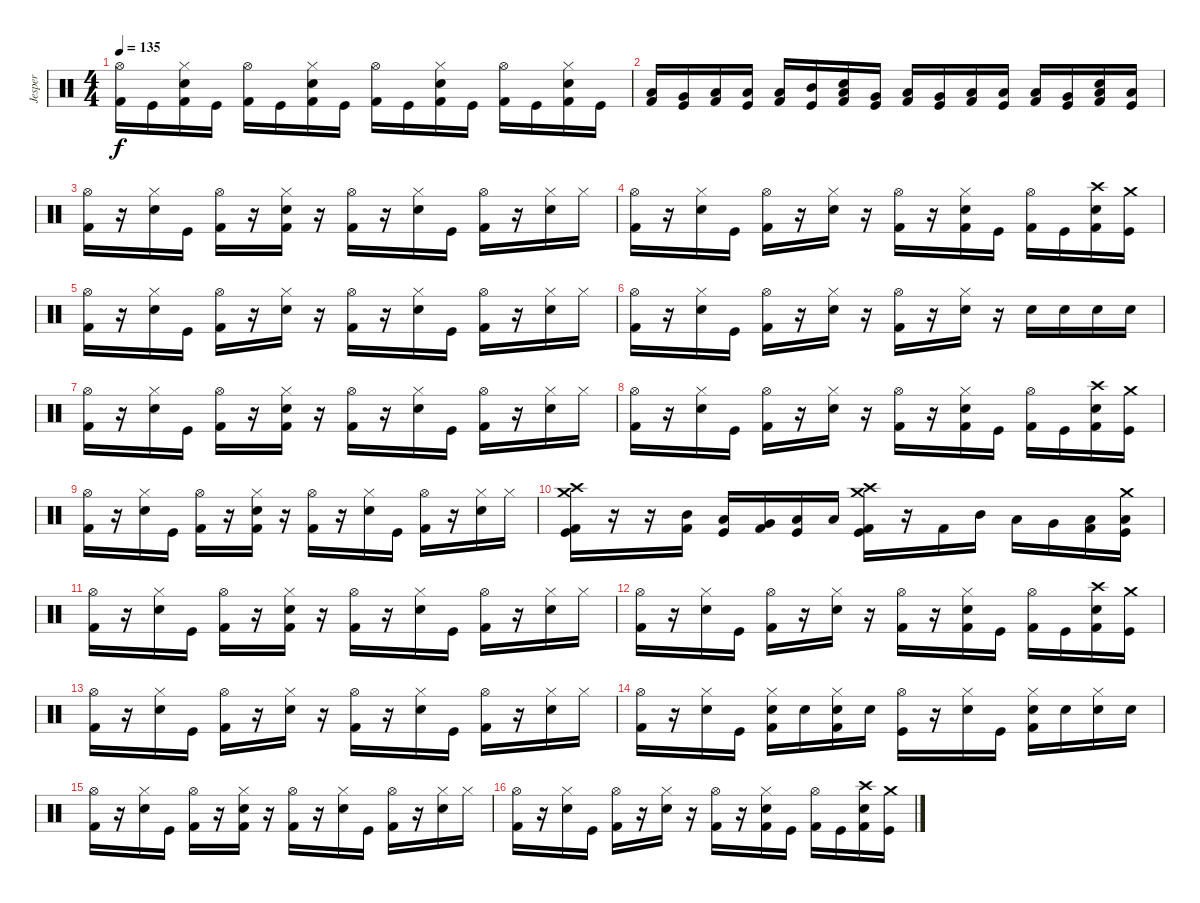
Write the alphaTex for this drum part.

\track ("Jesper" "Jesper") {instrument percussion}
\staff {score}
\articulation defaults
\ts (4 4)
\tempo 135
\clef neutral
\ks c
("Kick (hit) 2" "Hi-Hat (open)").16{dy f} "Kick (hit)".16 ("Kick (hit) 2" "Snare (hit) 2" "Hi-Hat (closed)").16 "Kick (hit)".16 ("Kick (hit) 2" "Hi-Hat (open)").16 "Kick (hit)".16 ("Kick (hit) 2" "Snare (hit) 2" "Hi-Hat (closed)").16 "Kick (hit)".16 ("Kick (hit) 2" "Hi-Hat (open)").16 "Kick (hit)".16 ("Kick (hit) 2" "Snare (hit) 2" "Hi-Hat (closed)").16 "Kick (hit)".16 ("Kick (hit) 2" "Hi-Hat (open)").16 "Kick (hit)".16 ("Kick (hit) 2" "Snare (hit) 2" "Hi-Hat (closed)").16 "Kick (hit)".16 |
("Kick (hit) 2" "Low Floor Tom (hit)").16 ("Kick (hit)" "Very Low Tom (hit)").16 ("Kick (hit) 2" "Low Floor Tom (hit)").16 ("Kick (hit)" "Low Tom (hit)").16 ("Kick (hit) 2" "Low Floor Tom (hit)").16 ("Kick (hit)" "Mid Tom (hit)").16 ("Kick (hit) 2" "Snare (hit) 2" "Low Floor Tom (hit)").16 ("Kick (hit)" "Very Low Tom (hit)").16 ("Kick (hit) 2" "Low Floor Tom (hit)").16 ("Kick (hit)" "Very Low Tom (hit)").16 ("Kick (hit) 2" "Low Floor Tom (hit)").16 ("Kick (hit)" "Low Tom (hit)").16 ("Kick (hit) 2" "Low Floor Tom (hit)").16 ("Kick (hit)" "Very Low Tom (hit)").16 ("Kick (hit) 2" "Snare (hit) 2" "Low Floor Tom (hit)").16 ("Kick (hit)" "Low Floor Tom (hit)").16 |
("Kick (hit) 2" "Hi-Hat (open)").16 r.16 ("Snare (hit) 2" "Hi-Hat (closed)").16 "Kick (hit)".16 ("Kick (hit) 2" "Hi-Hat (open)").16 r.16 ("Kick (hit) 2" "Snare (hit) 2" "Hi-Hat (closed)").16 r.16 ("Kick (hit) 2" "Hi-Hat (open)").16 r.16 ("Snare (hit) 2" "Hi-Hat (closed)").16 "Kick (hit)".16 ("Kick (hit) 2" "Hi-Hat (open)").16 r.16 ("Snare (hit) 2" "Hi-Hat (closed)").16 "Hi-Hat (closed)".16 |
("Kick (hit) 2" "Hi-Hat (open)").16 r.16 ("Snare (hit) 2" "Hi-Hat (closed)").16 "Kick (hit)".16 ("Kick (hit) 2" "Hi-Hat (open)").16 r.16 ("Snare (hit) 2" "Hi-Hat (closed)").16 r.16 ("Kick (hit) 2" "Hi-Hat (open)").16 r.16 ("Kick (hit) 2" "Snare (hit) 2" "Hi-Hat (closed)").16 "Kick (hit)".16 ("Kick (hit) 2" "Hi-Hat (open)").16 "Kick (hit)".16 ("Kick (hit) 2" "Snare (hit) 2" "Crash high (hit)").16 ("Kick (hit)" "Crash medium (hit)").16 |
("Kick (hit) 2" "Hi-Hat (open)").16 r.16 ("Snare (hit) 2" "Hi-Hat (closed)").16 "Kick (hit)".16 ("Kick (hit) 2" "Hi-Hat (open)").16 r.16 ("Snare (hit) 2" "Hi-Hat (closed)").16 r.16 ("Kick (hit) 2" "Hi-Hat (open)").16 r.16 ("Snare (hit) 2" "Hi-Hat (closed)").16 "Kick (hit)".16 ("Kick (hit) 2" "Hi-Hat (open)").16 r.16 ("Snare (hit) 2" "Hi-Hat (closed)").16 "Hi-Hat (closed)".16 |
("Kick (hit) 2" "Hi-Hat (open)").16 r.16 ("Snare (hit) 2" "Hi-Hat (closed)").16 "Kick (hit)".16 ("Kick (hit) 2" "Hi-Hat (open)").16 r.16 ("Snare (hit) 2" "Hi-Hat (closed)").16 r.16 ("Kick (hit) 2" "Hi-Hat (open)").16 r.16 ("Snare (hit) 2" "Hi-Hat (closed)").16 r.16 "Snare (hit) 2".16 "Snare (hit) 2".16 "Snare (hit) 2".16 "Snare (hit) 2".16 |
("Kick (hit) 2" "Hi-Hat (open)").16 r.16 ("Snare (hit) 2" "Hi-Hat (closed)").16 "Kick (hit)".16 ("Kick (hit) 2" "Hi-Hat (open)").16 r.16 ("Kick (hit) 2" "Snare (hit) 2" "Hi-Hat (closed)").16 r.16 ("Kick (hit) 2" "Hi-Hat (open)").16 r.16 ("Snare (hit) 2" "Hi-Hat (closed)").16 "Kick (hit)".16 ("Kick (hit) 2" "Hi-Hat (open)").16 r.16 ("Snare (hit) 2" "Hi-Hat (closed)").16 "Hi-Hat (closed)".16 |
("Kick (hit) 2" "Hi-Hat (open)").16 r.16 ("Snare (hit) 2" "Hi-Hat (closed)").16 "Kick (hit)".16 ("Kick (hit) 2" "Hi-Hat (open)").16 r.16 ("Snare (hit) 2" "Hi-Hat (closed)").16 r.16 ("Kick (hit) 2" "Hi-Hat (open)").16 r.16 ("Kick (hit) 2" "Snare (hit) 2" "Hi-Hat (closed)").16 "Kick (hit)".16 ("Kick (hit) 2" "Hi-Hat (open)").16 "Kick (hit)".16 ("Kick (hit) 2" "Snare (hit) 2" "Crash high (hit)").16 ("Kick (hit)" "Crash medium (hit)").16 |
("Kick (hit) 2" "Hi-Hat (open)").16 r.16 ("Snare (hit) 2" "Hi-Hat (closed)").16 "Kick (hit)".16 ("Kick (hit) 2" "Hi-Hat (open)").16 r.16 ("Kick (hit) 2" "Snare (hit) 2" "Hi-Hat (closed)").16 r.16 ("Kick (hit) 2" "Hi-Hat (open)").16 r.16 ("Snare (hit) 2" "Hi-Hat (closed)").16 "Kick (hit)".16 ("Kick (hit) 2" "Hi-Hat (open)").16 r.16 ("Snare (hit) 2" "Hi-Hat (closed)").16 "Hi-Hat (closed)".16 |
("Kick (hit) 2" "Kick (hit)" "Crash medium (hit)" "Crash high (hit)").16 r.16 r.16 ("Kick (hit) 2" "Mid Tom (hit)").16 ("Kick (hit)" "Low Tom (hit)").16 ("Kick (hit) 2" "Very Low Tom (hit)").16 ("Kick (hit)" "Low Floor Tom (hit)").16 "Low Floor Tom (hit)".16 ("Kick (hit) 2" "Kick (hit)" "Crash medium (hit)" "Crash high (hit)").16 r.16 "Kick (hit) 2".16 "Mid Tom (hit)".16 "Low Tom (hit)".16 "Very Low Tom (hit)".16 ("Kick (hit) 2" "Low Floor Tom (hit)").16 ("Kick (hit)" "Low Floor Tom (hit)" "Crash medium (hit)").16 |
("Kick (hit) 2" "Hi-Hat (open)").16 r.16 ("Snare (hit) 2" "Hi-Hat (closed)").16 "Kick (hit)".16 ("Kick (hit) 2" "Hi-Hat (open)").16 r.16 ("Kick (hit) 2" "Snare (hit) 2" "Hi-Hat (closed)").16 r.16 ("Kick (hit) 2" "Hi-Hat (open)").16 r.16 ("Snare (hit) 2" "Hi-Hat (closed)").16 "Kick (hit)".16 ("Kick (hit) 2" "Hi-Hat (open)").16 r.16 ("Snare (hit) 2" "Hi-Hat (closed)").16 "Hi-Hat (closed)".16 |
("Kick (hit) 2" "Hi-Hat (open)").16 r.16 ("Snare (hit) 2" "Hi-Hat (closed)").16 "Kick (hit)".16 ("Kick (hit) 2" "Hi-Hat (open)").16 r.16 ("Snare (hit) 2" "Hi-Hat (closed)").16 r.16 ("Kick (hit) 2" "Hi-Hat (open)").16 r.16 ("Kick (hit) 2" "Snare (hit) 2" "Hi-Hat (closed)").16 "Kick (hit)".16 ("Kick (hit) 2" "Hi-Hat (open)").16 "Kick (hit)".16 ("Kick (hit) 2" "Snare (hit) 2" "Crash high (hit)").16 ("Kick (hit)" "Crash medium (hit)").16 |
("Kick (hit) 2" "Hi-Hat (open)").16 r.16 ("Snare (hit) 2" "Hi-Hat (closed)").16 "Kick (hit)".16 ("Kick (hit) 2" "Hi-Hat (open)").16 r.16 ("Snare (hit) 2" "Hi-Hat (closed)").16 r.16 ("Kick (hit) 2" "Hi-Hat (open)").16 r.16 ("Snare (hit) 2" "Hi-Hat (closed)").16 "Kick (hit)".16 ("Kick (hit) 2" "Hi-Hat (open)").16 r.16 ("Snare (hit) 2" "Hi-Hat (closed)").16 "Hi-Hat (closed)".16 |
("Kick (hit) 2" "Hi-Hat (open)").16 r.16 ("Snare (hit) 2" "Hi-Hat (closed)").16 "Kick (hit)".16 ("Kick (hit) 2" "Snare (hit) 2" "Hi-Hat (closed)").16 "Snare (hit) 2".16 ("Kick (hit) 2" "Snare (hit) 2" "Hi-Hat (closed)").16 "Snare (hit) 2".16 ("Kick (hit)" "Hi-Hat (open)").16 r.16 ("Snare (hit) 2" "Hi-Hat (closed)").16 "Kick (hit)".16 ("Kick (hit) 2" "Snare (hit) 2" "Hi-Hat (closed)").16 "Snare (hit) 2".16 ("Snare (hit) 2" "Hi-Hat (closed)").16 "Snare (hit) 2".16 |
("Kick (hit) 2" "Hi-Hat (open)").16 r.16 ("Snare (hit) 2" "Hi-Hat (closed)").16 "Kick (hit)".16 ("Kick (hit) 2" "Hi-Hat (open)").16 r.16 ("Kick (hit) 2" "Snare (hit) 2" "Hi-Hat (closed)").16 r.16 ("Kick (hit) 2" "Hi-Hat (open)").16 r.16 ("Snare (hit) 2" "Hi-Hat (closed)").16 "Kick (hit)".16 ("Kick (hit) 2" "Hi-Hat (open)").16 r.16 ("Snare (hit) 2" "Hi-Hat (closed)").16 "Hi-Hat (closed)".16 |
("Kick (hit) 2" "Hi-Hat (open)").16 r.16 ("Snare (hit) 2" "Hi-Hat (closed)").16 "Kick (hit)".16 ("Kick (hit) 2" "Hi-Hat (open)").16 r.16 ("Snare (hit) 2" "Hi-Hat (closed)").16 r.16 ("Kick (hit) 2" "Hi-Hat (open)").16 r.16 ("Kick (hit) 2" "Snare (hit) 2" "Hi-Hat (closed)").16 "Kick (hit)".16 ("Kick (hit) 2" "Hi-Hat (open)").16 "Kick (hit)".16 ("Kick (hit) 2" "Snare (hit) 2" "Crash high (hit)").16 ("Kick (hit)" "Crash medium (hit)").16
